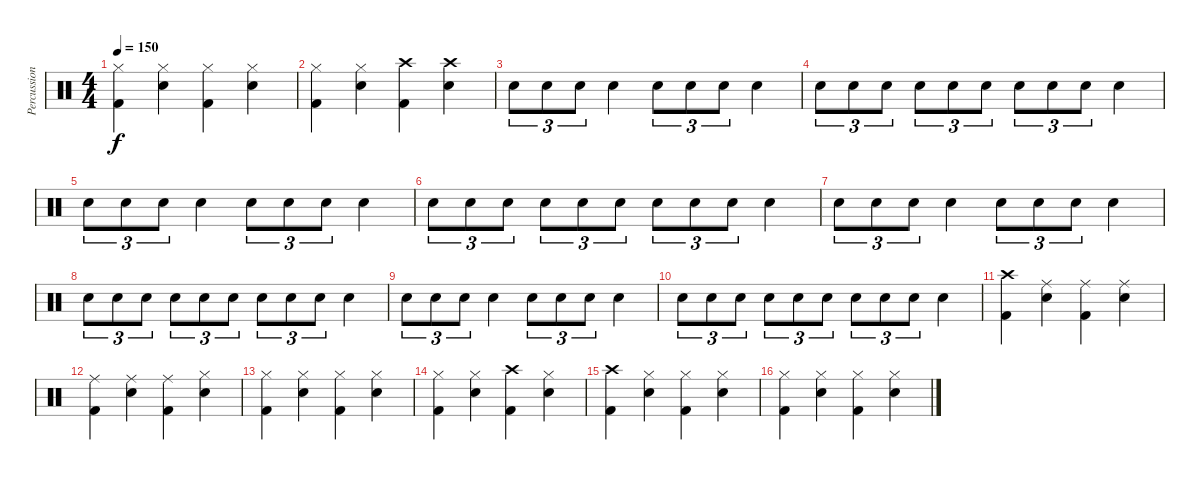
\track ("Percussion" "Percussion") {instrument percussion}
\staff {score}
\articulation defaults
\ts (4 4)
\tempo 150
\clef neutral
\ks c
("Hi-Hat (closed)" "Kick (hit) 2").4{dy f} ("Hi-Hat (closed)" "Electric Snare (hit)").4 ("Hi-Hat (closed)" "Kick (hit) 2").4 ("Hi-Hat (closed)" "Electric Snare (hit)").4 |
("Hi-Hat (closed)" "Kick (hit) 2").4 ("Hi-Hat (closed)" "Electric Snare (hit)").4 ("Crash high (hit)" "Kick (hit) 2").4 ("Crash high (hit)" "Electric Snare (hit)").4 |
"Electric Snare (hit)".8{tu (3 2)} "Electric Snare (hit)".8{tu (3 2)} "Electric Snare (hit)".8{tu (3 2)} "Electric Snare (hit)".4 "Electric Snare (hit)".8{tu (3 2)} "Electric Snare (hit)".8{tu (3 2)} "Electric Snare (hit)".8{tu (3 2)} "Electric Snare (hit)".4 |
"Electric Snare (hit)".8{tu (3 2)} "Electric Snare (hit)".8{tu (3 2)} "Electric Snare (hit)".8{tu (3 2)} "Electric Snare (hit)".8{tu (3 2)} "Electric Snare (hit)".8{tu (3 2)} "Electric Snare (hit)".8{tu (3 2)} "Electric Snare (hit)".8{tu (3 2)} "Electric Snare (hit)".8{tu (3 2)} "Electric Snare (hit)".8{tu (3 2)} "Electric Snare (hit)".4 |
"Electric Snare (hit)".8{tu (3 2)} "Electric Snare (hit)".8{tu (3 2)} "Electric Snare (hit)".8{tu (3 2)} "Electric Snare (hit)".4 "Electric Snare (hit)".8{tu (3 2)} "Electric Snare (hit)".8{tu (3 2)} "Electric Snare (hit)".8{tu (3 2)} "Electric Snare (hit)".4 |
"Electric Snare (hit)".8{tu (3 2)} "Electric Snare (hit)".8{tu (3 2)} "Electric Snare (hit)".8{tu (3 2)} "Electric Snare (hit)".8{tu (3 2)} "Electric Snare (hit)".8{tu (3 2)} "Electric Snare (hit)".8{tu (3 2)} "Electric Snare (hit)".8{tu (3 2)} "Electric Snare (hit)".8{tu (3 2)} "Electric Snare (hit)".8{tu (3 2)} "Electric Snare (hit)".4 |
"Electric Snare (hit)".8{tu (3 2)} "Electric Snare (hit)".8{tu (3 2)} "Electric Snare (hit)".8{tu (3 2)} "Electric Snare (hit)".4 "Electric Snare (hit)".8{tu (3 2)} "Electric Snare (hit)".8{tu (3 2)} "Electric Snare (hit)".8{tu (3 2)} "Electric Snare (hit)".4 |
"Electric Snare (hit)".8{tu (3 2)} "Electric Snare (hit)".8{tu (3 2)} "Electric Snare (hit)".8{tu (3 2)} "Electric Snare (hit)".8{tu (3 2)} "Electric Snare (hit)".8{tu (3 2)} "Electric Snare (hit)".8{tu (3 2)} "Electric Snare (hit)".8{tu (3 2)} "Electric Snare (hit)".8{tu (3 2)} "Electric Snare (hit)".8{tu (3 2)} "Electric Snare (hit)".4 |
"Electric Snare (hit)".8{tu (3 2)} "Electric Snare (hit)".8{tu (3 2)} "Electric Snare (hit)".8{tu (3 2)} "Electric Snare (hit)".4 "Electric Snare (hit)".8{tu (3 2)} "Electric Snare (hit)".8{tu (3 2)} "Electric Snare (hit)".8{tu (3 2)} "Electric Snare (hit)".4 |
"Electric Snare (hit)".8{tu (3 2)} "Electric Snare (hit)".8{tu (3 2)} "Electric Snare (hit)".8{tu (3 2)} "Electric Snare (hit)".8{tu (3 2)} "Electric Snare (hit)".8{tu (3 2)} "Electric Snare (hit)".8{tu (3 2)} "Electric Snare (hit)".8{tu (3 2)} "Electric Snare (hit)".8{tu (3 2)} "Electric Snare (hit)".8{tu (3 2)} "Electric Snare (hit)".4 |
("Crash high (hit)" "Kick (hit) 2").4 ("Ride (middle)" "Electric Snare (hit)").4 ("Ride (middle)" "Kick (hit) 2").4 ("Ride (middle)" "Electric Snare (hit)").4 |
("Ride (middle)" "Kick (hit) 2").4 ("Ride (middle)" "Electric Snare (hit)").4 ("Ride (middle)" "Kick (hit) 2").4 ("Hi-Hat (closed)" "Electric Snare (hit)").4 |
("Hi-Hat (closed)" "Kick (hit) 2").4 ("Hi-Hat (closed)" "Electric Snare (hit)").4 ("Hi-Hat (closed)" "Kick (hit) 2").4 ("Hi-Hat (closed)" "Electric Snare (hit)").4 |
("Hi-Hat (closed)" "Kick (hit) 2").4 ("Hi-Hat (closed)" "Electric Snare (hit)").4 ("Crash high (hit)" "Kick (hit) 2").4 ("Hi-Hat (closed)" "Electric Snare (hit)").4 |
("Crash high (hit)" "Kick (hit) 2").4 ("Hi-Hat (closed)" "Electric Snare (hit)").4 ("Hi-Hat (closed)" "Kick (hit) 2").4 ("Hi-Hat (closed)" "Electric Snare (hit)").4 |
("Hi-Hat (closed)" "Kick (hit) 2").4 ("Hi-Hat (closed)" "Electric Snare (hit)").4 ("Hi-Hat (closed)" "Kick (hit) 2").4 ("Hi-Hat (closed)" "Electric Snare (hit)").4
